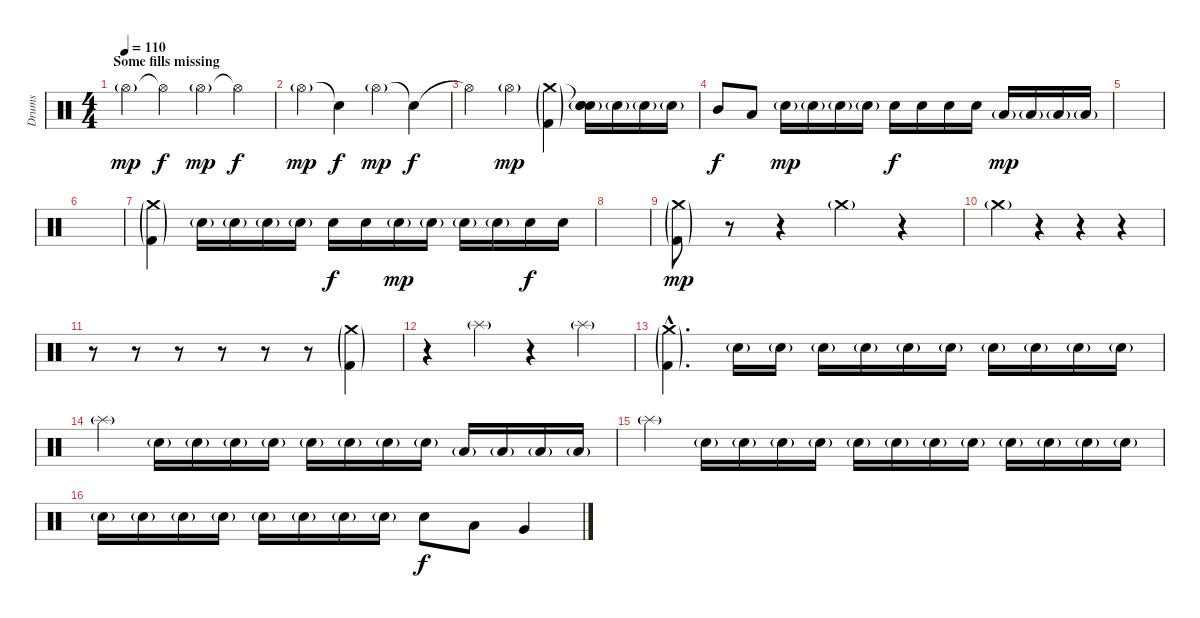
\track ("Drums" "Drums") {instrument percussion}
\staff {score}
\articulation defaults
\ts (4 4)
\section ("" "Some fills missing")
\tempo 110
\clef neutral
\ks c "Hi-Hat (open)"{g}.4{dy mp} "Hi-Hat (open)"{t}.4{dy f} "Hi-Hat (open)"{g}.4{dy mp} "Hi-Hat (open)"{t}.4{dy f}
|
"Hi-Hat (open)"{g}.4{dy mp} "Snare (hit)"{t}.4{dy f} "Hi-Hat (open)"{g}.4{dy mp} "Snare (hit)"{t}.4{dy f} |
"Hi-Hat (open)"{t}.4 "Hi-Hat (open)"{g}.4{dy mp} ("Crash medium (hit)"{g} "Kick (hit) 2"{g}).4 ("Snare (hit)"{t} "Snare (hit) 2"{g} "Snare (hit)").16 "Snare (hit) 2"{g}.16 "Snare (hit) 2"{g}.16 "Snare (hit) 2"{g}.16 |
"Mid Tom (hit)".8{dy f} "Low Tom (hit)".8 "Snare (hit) 2"{g}.16{dy mp} "Snare (hit) 2"{g}.16 "Snare (hit) 2"{g}.16 "Snare (hit) 2"{g}.16 "Snare (hit) 2".16{dy f} "Snare (hit) 2".16 "Snare (hit) 2".16 "Snare (hit) 2".16 "Low Tom (hit)"{g}.16{dy mp} "Low Tom (hit)"{g}.16 "Low Tom (hit)"{g}.16 "Low Tom (hit)"{g}.16 |
|
|
("Crash medium (hit)"{g} "Kick (hit) 2"{g}).4 "Snare (hit) 2"{g}.16 "Snare (hit) 2"{g}.16 "Snare (hit) 2"{g}.16 "Snare (hit) 2"{g}.16 "Snare (hit) 2".16{dy f} "Snare (hit) 2".16 "Snare (hit) 2"{g}.16{dy mp} "Snare (hit) 2"{g}.16 "Snare (hit) 2"{g}.16 "Snare (hit) 2"{g}.16 "Snare (hit) 2".16{dy f} "Snare (hit) 2".16 |
|
("Crash medium (hit)"{g} "Kick (hit) 2"{g}).8{dy mp} r.8 r.4 "Crash medium (hit)"{g}.4 r.4 |
"Crash medium (hit)"{g}.4 r.4 r.4 r.4 |
r.8 r.8 r.8 r.8 r.8 r.8 ("Crash medium (hit)"{g} "Kick (hit) 2"{g}).4 |
r.4 "Splash (hit)"{g}.4 r.4 "Splash (hit)"{g}.4 |
("Crash medium (hit)"{g hac} "Kick (hit) 2"{g hac}).4{d} "Snare (hit) 2"{g}.16 "Snare (hit) 2"{g}.16 "Snare (hit) 2"{g}.16 "Snare (hit) 2"{g}.16 "Snare (hit) 2"{g}.16 "Snare (hit) 2"{g}.16 "Snare (hit) 2"{g}.16 "Snare (hit) 2"{g}.16 "Snare (hit) 2"{g}.16 "Snare (hit) 2"{g}.16 |
"Splash (hit)"{g}.4 "Snare (hit) 2"{g}.16 "Snare (hit) 2"{g}.16 "Snare (hit) 2"{g}.16 "Snare (hit) 2"{g}.16 "Snare (hit) 2"{g}.16 "Snare (hit) 2"{g}.16 "Snare (hit) 2"{g}.16 "Snare (hit) 2"{g}.16 "Low Tom (hit)"{g}.16 "Low Tom (hit)"{g}.16 "Low Tom (hit)"{g}.16 "Low Tom (hit)"{g}.16 |
"Splash (hit)"{g}.4 "Snare (hit) 2"{g}.16 "Snare (hit) 2"{g}.16 "Snare (hit) 2"{g}.16 "Snare (hit) 2"{g}.16 "Snare (hit) 2"{g}.16 "Snare (hit) 2"{g}.16 "Snare (hit) 2"{g}.16 "Snare (hit) 2"{g}.16 "Snare (hit) 2"{g}.16 "Snare (hit) 2"{g}.16 "Snare (hit) 2"{g}.16 "Snare (hit) 2"{g}.16 |
"Snare (hit) 2"{g}.16 "Snare (hit) 2"{g}.16 "Snare (hit) 2"{g}.16 "Snare (hit) 2"{g}.16 "Snare (hit) 2"{g}.16 "Snare (hit) 2"{g}.16 "Snare (hit) 2"{g}.16 "Snare (hit) 2"{g}.16 "Snare (hit) 2".8{dy f} "Low Tom (hit)".8 "Very Low Tom (hit)".4
